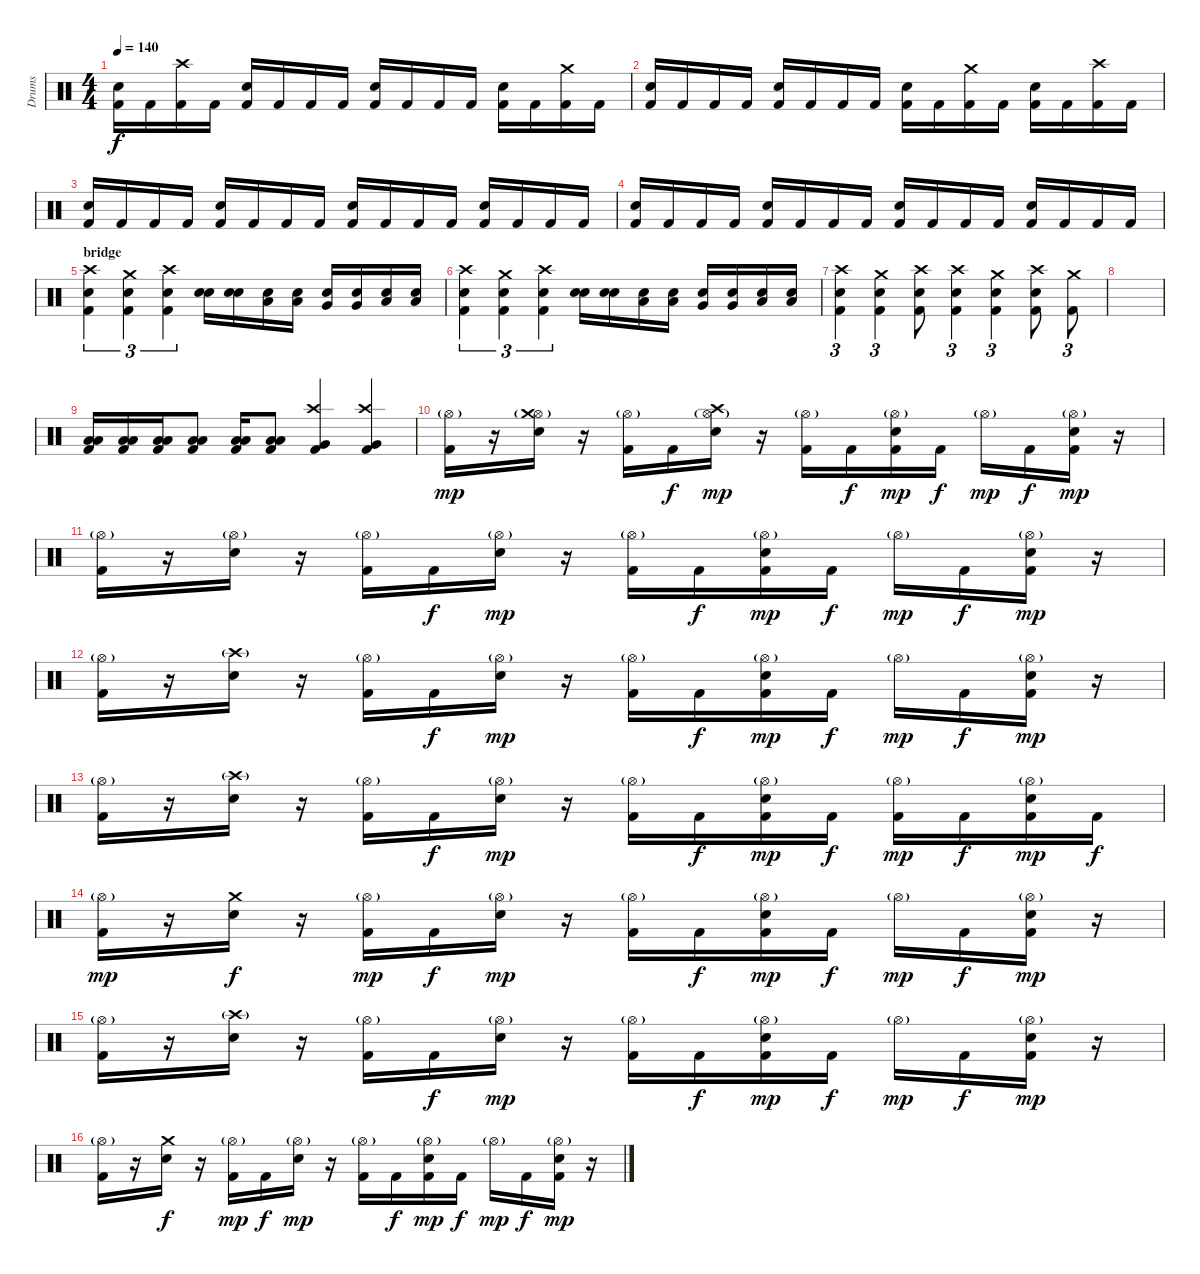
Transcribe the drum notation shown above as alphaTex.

\track ("Drums" "Drums") {instrument percussion}
\staff {score}
\articulation defaults
\ts (4 4)
\tempo 140
\clef neutral
\ks c
("Electric Snare (hit)" "Kick (hit) 2").16{dy f} "Kick (hit) 2".16 ("Crash high (hit)" "Kick (hit) 2").16 "Kick (hit) 2".16 ("Electric Snare (hit)" "Kick (hit) 2").16 "Kick (hit) 2".16 "Kick (hit) 2".16 "Kick (hit) 2".16 ("Electric Snare (hit)" "Kick (hit) 2").16 "Kick (hit) 2".16 "Kick (hit) 2".16 "Kick (hit) 2".16 ("Electric Snare (hit)" "Kick (hit) 2").16 "Kick (hit) 2".16 ("Crash medium (hit)" "Kick (hit) 2").16 "Kick (hit) 2".16 |
("Electric Snare (hit)" "Kick (hit) 2").16 "Kick (hit) 2".16 "Kick (hit) 2".16 "Kick (hit) 2".16 ("Electric Snare (hit)" "Kick (hit) 2").16 "Kick (hit) 2".16 "Kick (hit) 2".16 "Kick (hit) 2".16 ("Electric Snare (hit)" "Kick (hit) 2").16 "Kick (hit) 2".16 ("Crash medium (hit)" "Kick (hit) 2").16 "Kick (hit) 2".16 ("Electric Snare (hit)" "Kick (hit) 2").16 "Kick (hit) 2".16 ("Crash high (hit)" "Kick (hit) 2").16 "Kick (hit) 2".16 |
("Electric Snare (hit)" "Kick (hit) 2").16 "Kick (hit) 2".16 "Kick (hit) 2".16 "Kick (hit) 2".16 ("Electric Snare (hit)" "Kick (hit) 2").16 "Kick (hit) 2".16 "Kick (hit) 2".16 "Kick (hit) 2".16 ("Electric Snare (hit)" "Kick (hit) 2").16 "Kick (hit) 2".16 "Kick (hit) 2".16 "Kick (hit) 2".16 ("Electric Snare (hit)" "Kick (hit) 2").16 "Kick (hit) 2".16 "Kick (hit) 2".16 "Kick (hit) 2".16 |
("Electric Snare (hit)" "Kick (hit) 2").16 "Kick (hit) 2".16 "Kick (hit) 2".16 "Kick (hit) 2".16 ("Electric Snare (hit)" "Kick (hit) 2").16 "Kick (hit) 2".16 "Kick (hit) 2".16 "Kick (hit) 2".16 ("Electric Snare (hit)" "Kick (hit) 2").16 "Kick (hit) 2".16 "Kick (hit) 2".16 "Kick (hit) 2".16 ("Electric Snare (hit)" "Kick (hit) 2").16 "Kick (hit) 2".16 "Kick (hit) 2".16 "Kick (hit) 2".16 |
\section ("" "bridge")
("Crash high (hit)" "Electric Snare (hit)" "Kick (hit) 2").4{tu (3 2)} ("Crash medium (hit)" "Electric Snare (hit)" "Kick (hit) 2").4{tu (3 2)} ("Crash high (hit)" "Electric Snare (hit)" "Kick (hit) 2").4{tu (3 2)} ("Electric Snare (hit)" "Snare (hit) 2").16 ("Electric Snare (hit)" "Snare (hit) 2").16 ("Electric Snare (hit)" "Low Floor Tom (hit)").16 ("Electric Snare (hit)" "Low Floor Tom (hit)").16 ("Electric Snare (hit)" "Very Low Tom (hit)").16 ("Electric Snare (hit)" "Very Low Tom (hit)").16 ("Electric Snare (hit)" "Low Tom (hit)").16 ("Electric Snare (hit)" "Low Tom (hit)").16 |
("Crash high (hit)" "Electric Snare (hit)" "Kick (hit) 2").4{tu (3 2)} ("Crash medium (hit)" "Electric Snare (hit)" "Kick (hit) 2").4{tu (3 2)} ("Crash high (hit)" "Electric Snare (hit)" "Kick (hit) 2").4{tu (3 2)} ("Electric Snare (hit)" "Snare (hit) 2").16 ("Electric Snare (hit)" "Snare (hit) 2").16 ("Electric Snare (hit)" "Low Floor Tom (hit)").16 ("Electric Snare (hit)" "Low Floor Tom (hit)").16 ("Electric Snare (hit)" "Very Low Tom (hit)").16 ("Electric Snare (hit)" "Very Low Tom (hit)").16 ("Electric Snare (hit)" "Low Tom (hit)").16 ("Electric Snare (hit)" "Low Tom (hit)").16 |
("Crash high (hit)" "Electric Snare (hit)" "Kick (hit) 2").4{tu (3 2)} ("Crash medium (hit)" "Electric Snare (hit)" "Kick (hit) 2").4{tu (3 2)} ("Crash high (hit)" "Electric Snare (hit)" "Kick (hit) 2").8 ("Crash high (hit)" "Electric Snare (hit)" "Kick (hit) 2").4{tu (3 2)} ("Crash medium (hit)" "Electric Snare (hit)" "Kick (hit) 2").4{tu (3 2)} ("Crash high (hit)" "Electric Snare (hit)" "Kick (hit) 2").8 ("Crash medium (hit)" "Kick (hit) 2").8{tu (3 2)} |
|
("Low Tom (hit)" "Low Tom (hit)" "Kick (hit) 2").16 ("Low Tom (hit)" "Low Tom (hit)" "Kick (hit) 2").16 ("Low Tom (hit)" "Low Tom (hit)" "Kick (hit) 2").16 ("Low Tom (hit)" "Low Tom (hit)" "Kick (hit) 2").8 ("Low Tom (hit)" "Low Tom (hit)" "Kick (hit) 2").16 ("Low Tom (hit)" "Low Tom (hit)" "Kick (hit) 2").8 ("Crash high (hit)" "Very Low Tom (hit)" "Kick (hit) 2").4 ("Crash high (hit)" "Very Low Tom (hit)" "Kick (hit) 2").4 |
("Hi-Hat (open)"{g} "Kick (hit) 2").16{dy mp volume 12} r.16 ("Hi-Hat (open)"{g} "Electric Snare (hit)" "Crash medium (hit)").16 r.16 ("Hi-Hat (open)"{g} "Kick (hit) 2").16 "Kick (hit) 2".16{dy f} ("Hi-Hat (open)"{g} "Electric Snare (hit)" "Crash high (hit)").16{dy mp} r.16 ("Hi-Hat (open)"{g} "Kick (hit) 2").16 "Kick (hit) 2".16{dy f} ("Hi-Hat (open)"{g} "Electric Snare (hit)" "Kick (hit) 2").16{dy mp} "Kick (hit) 2".16{dy f} "Hi-Hat (open)"{g}.16{dy mp} "Kick (hit) 2".16{dy f} ("Hi-Hat (open)"{g} "Electric Snare (hit)" "Kick (hit) 2").16{dy mp} r.16 |
("Hi-Hat (open)"{g} "Kick (hit) 2").16 r.16 ("Hi-Hat (open)"{g} "Electric Snare (hit)").16 r.16 ("Hi-Hat (open)"{g} "Kick (hit) 2").16 "Kick (hit) 2".16{dy f} ("Hi-Hat (open)"{g} "Electric Snare (hit)").16{dy mp} r.16 ("Hi-Hat (open)"{g} "Kick (hit) 2").16 "Kick (hit) 2".16{dy f} ("Hi-Hat (open)"{g} "Electric Snare (hit)" "Kick (hit) 2").16{dy mp} "Kick (hit) 2".16{dy f} "Hi-Hat (open)"{g}.16{dy mp} "Kick (hit) 2".16{dy f} ("Hi-Hat (open)"{g} "Electric Snare (hit)" "Kick (hit) 2").16{dy mp} r.16 |
("Hi-Hat (open)"{g} "Kick (hit) 2").16 r.16 ("Crash high (hit)"{g} "Electric Snare (hit)").16 r.16 ("Hi-Hat (open)"{g} "Kick (hit) 2").16 "Kick (hit) 2".16{dy f} ("Hi-Hat (open)"{g} "Electric Snare (hit)").16{dy mp} r.16 ("Hi-Hat (open)"{g} "Kick (hit) 2").16 "Kick (hit) 2".16{dy f} ("Hi-Hat (open)"{g} "Electric Snare (hit)" "Kick (hit) 2").16{dy mp} "Kick (hit) 2".16{dy f} "Hi-Hat (open)"{g}.16{dy mp} "Kick (hit) 2".16{dy f} ("Hi-Hat (open)"{g} "Electric Snare (hit)" "Kick (hit) 2").16{dy mp} r.16 |
("Hi-Hat (open)"{g} "Kick (hit) 2").16 r.16 ("Crash high (hit)"{g} "Electric Snare (hit)").16 r.16 ("Hi-Hat (open)"{g} "Kick (hit) 2").16 "Kick (hit) 2".16{dy f} ("Hi-Hat (open)"{g} "Electric Snare (hit)").16{dy mp} r.16 ("Hi-Hat (open)"{g} "Kick (hit) 2").16 "Kick (hit) 2".16{dy f} ("Hi-Hat (open)"{g} "Electric Snare (hit)" "Kick (hit) 2").16{dy mp} "Kick (hit) 2".16{dy f} ("Hi-Hat (open)"{g} "Kick (hit) 2").16{dy mp} "Kick (hit) 2".16{dy f} ("Hi-Hat (open)"{g} "Electric Snare (hit)" "Kick (hit) 2").16{dy mp} "Kick (hit) 2".16{dy f} |
("Hi-Hat (open)"{g} "Kick (hit) 2").16{dy mp} r.16 ("Crash medium (hit)" "Electric Snare (hit)").16{dy f} r.16 ("Hi-Hat (open)"{g} "Kick (hit) 2").16{dy mp} "Kick (hit) 2".16{dy f} ("Hi-Hat (open)"{g} "Electric Snare (hit)").16{dy mp} r.16 ("Hi-Hat (open)"{g} "Kick (hit) 2").16 "Kick (hit) 2".16{dy f} ("Hi-Hat (open)"{g} "Electric Snare (hit)" "Kick (hit) 2").16{dy mp} "Kick (hit) 2".16{dy f} "Hi-Hat (open)"{g}.16{dy mp} "Kick (hit) 2".16{dy f} ("Hi-Hat (open)"{g} "Electric Snare (hit)" "Kick (hit) 2").16{dy mp} r.16 |
("Hi-Hat (open)"{g} "Kick (hit) 2").16 r.16 ("Crash high (hit)"{g} "Electric Snare (hit)").16 r.16 ("Hi-Hat (open)"{g} "Kick (hit) 2").16 "Kick (hit) 2".16{dy f} ("Hi-Hat (open)"{g} "Electric Snare (hit)").16{dy mp} r.16 ("Hi-Hat (open)"{g} "Kick (hit) 2").16 "Kick (hit) 2".16{dy f} ("Hi-Hat (open)"{g} "Electric Snare (hit)" "Kick (hit) 2").16{dy mp} "Kick (hit) 2".16{dy f} "Hi-Hat (open)"{g}.16{dy mp} "Kick (hit) 2".16{dy f} ("Hi-Hat (open)"{g} "Electric Snare (hit)" "Kick (hit) 2").16{dy mp} r.16 |
("Hi-Hat (open)"{g} "Kick (hit) 2").16 r.16 ("Crash medium (hit)" "Electric Snare (hit)").16{dy f} r.16 ("Hi-Hat (open)"{g} "Kick (hit) 2").16{dy mp} "Kick (hit) 2".16{dy f} ("Hi-Hat (open)"{g} "Electric Snare (hit)").16{dy mp} r.16 ("Hi-Hat (open)"{g} "Kick (hit) 2").16 "Kick (hit) 2".16{dy f} ("Hi-Hat (open)"{g} "Electric Snare (hit)" "Kick (hit) 2").16{dy mp} "Kick (hit) 2".16{dy f} "Hi-Hat (open)"{g}.16{dy mp} "Kick (hit) 2".16{dy f} ("Hi-Hat (open)"{g} "Electric Snare (hit)" "Kick (hit) 2").16{dy mp} r.16
